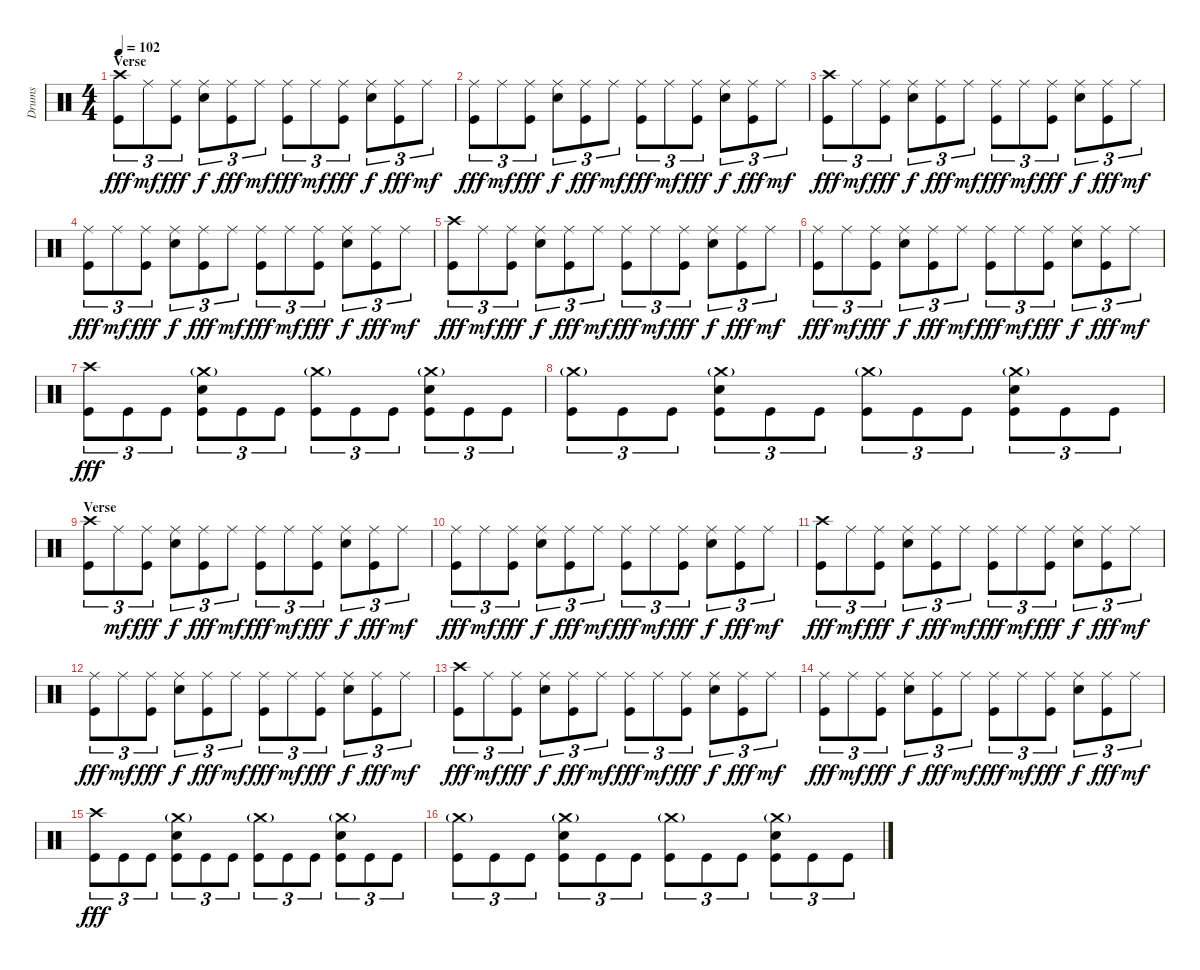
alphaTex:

\track ("Drums" "Drums") {instrument percussion}
\staff {score}
\articulation defaults
\ts (4 4)
\section ("" "Verse")
\tempo 102
\clef neutral
\ks c
("Crash high (hit)" "Kick (hit)").8{tu (3 2) dy fff} "Ride (middle)".8{tu (3 2) dy mf} ("Ride (middle)" "Kick (hit)").8{tu (3 2) dy fff} ("Ride (middle)" "Snare (hit) 2").8{tu (3 2) dy f} ("Ride (middle)" "Kick (hit)").8{tu (3 2) dy fff} "Ride (middle)".8{tu (3 2) dy mf} ("Ride (middle)" "Kick (hit)").8{tu (3 2) dy fff} "Ride (middle)".8{tu (3 2) dy mf} ("Ride (middle)" "Kick (hit)").8{tu (3 2) dy fff} ("Ride (middle)" "Snare (hit) 2").8{tu (3 2) dy f} ("Ride (middle)" "Kick (hit)").8{tu (3 2) dy fff} "Ride (middle)".8{tu (3 2) dy mf} |
("Ride (middle)" "Kick (hit)").8{tu (3 2) dy fff} "Ride (middle)".8{tu (3 2) dy mf} ("Ride (middle)" "Kick (hit)").8{tu (3 2) dy fff} ("Ride (middle)" "Snare (hit) 2").8{tu (3 2) dy f} ("Ride (middle)" "Kick (hit)").8{tu (3 2) dy fff} "Ride (middle)".8{tu (3 2) dy mf} ("Ride (middle)" "Kick (hit)").8{tu (3 2) dy fff} "Ride (middle)".8{tu (3 2) dy mf} ("Ride (middle)" "Kick (hit)").8{tu (3 2) dy fff} ("Ride (middle)" "Snare (hit) 2").8{tu (3 2) dy f} ("Ride (middle)" "Kick (hit)").8{tu (3 2) dy fff} "Ride (middle)".8{tu (3 2) dy mf} |
("Crash high (hit)" "Kick (hit)").8{tu (3 2) dy fff} "Ride (middle)".8{tu (3 2) dy mf} ("Ride (middle)" "Kick (hit)").8{tu (3 2) dy fff} ("Ride (middle)" "Snare (hit) 2").8{tu (3 2) dy f} ("Ride (middle)" "Kick (hit)").8{tu (3 2) dy fff} "Ride (middle)".8{tu (3 2) dy mf} ("Ride (middle)" "Kick (hit)").8{tu (3 2) dy fff} "Ride (middle)".8{tu (3 2) dy mf} ("Ride (middle)" "Kick (hit)").8{tu (3 2) dy fff} ("Ride (middle)" "Snare (hit) 2").8{tu (3 2) dy f} ("Ride (middle)" "Kick (hit)").8{tu (3 2) dy fff} "Ride (middle)".8{tu (3 2) dy mf} |
("Ride (middle)" "Kick (hit)").8{tu (3 2) dy fff} "Ride (middle)".8{tu (3 2) dy mf} ("Ride (middle)" "Kick (hit)").8{tu (3 2) dy fff} ("Ride (middle)" "Snare (hit) 2").8{tu (3 2) dy f} ("Ride (middle)" "Kick (hit)").8{tu (3 2) dy fff} "Ride (middle)".8{tu (3 2) dy mf} ("Ride (middle)" "Kick (hit)").8{tu (3 2) dy fff} "Ride (middle)".8{tu (3 2) dy mf} ("Ride (middle)" "Kick (hit)").8{tu (3 2) dy fff} ("Ride (middle)" "Snare (hit) 2").8{tu (3 2) dy f} ("Ride (middle)" "Kick (hit)").8{tu (3 2) dy fff} "Ride (middle)".8{tu (3 2) dy mf} |
("Crash high (hit)" "Kick (hit)").8{tu (3 2) dy fff} "Ride (middle)".8{tu (3 2) dy mf} ("Ride (middle)" "Kick (hit)").8{tu (3 2) dy fff} ("Ride (middle)" "Snare (hit) 2").8{tu (3 2) dy f} ("Ride (middle)" "Kick (hit)").8{tu (3 2) dy fff} "Ride (middle)".8{tu (3 2) dy mf} ("Ride (middle)" "Kick (hit)").8{tu (3 2) dy fff} "Ride (middle)".8{tu (3 2) dy mf} ("Ride (middle)" "Kick (hit)").8{tu (3 2) dy fff} ("Ride (middle)" "Snare (hit) 2").8{tu (3 2) dy f} ("Ride (middle)" "Kick (hit)").8{tu (3 2) dy fff} "Ride (middle)".8{tu (3 2) dy mf} |
("Ride (middle)" "Kick (hit)").8{tu (3 2) dy fff} "Ride (middle)".8{tu (3 2) dy mf} ("Ride (middle)" "Kick (hit)").8{tu (3 2) dy fff} ("Ride (middle)" "Snare (hit) 2").8{tu (3 2) dy f} ("Ride (middle)" "Kick (hit)").8{tu (3 2) dy fff} "Ride (middle)".8{tu (3 2) dy mf} ("Ride (middle)" "Kick (hit)").8{tu (3 2) dy fff} "Ride (middle)".8{tu (3 2) dy mf} ("Ride (middle)" "Kick (hit)").8{tu (3 2) dy fff} ("Ride (middle)" "Snare (hit) 2").8{tu (3 2) dy f} ("Ride (middle)" "Kick (hit)").8{tu (3 2) dy fff} "Ride (middle)".8{tu (3 2) dy mf} |
("Crash high (hit)" "Kick (hit)").8{tu (3 2) dy fff} "Kick (hit)".8{tu (3 2)} "Kick (hit)".8{tu (3 2)} ("Crash medium (hit)"{g} "Snare (hit) 2" "Kick (hit)").8{tu (3 2)} "Kick (hit)".8{tu (3 2)} "Kick (hit)".8{tu (3 2)} ("Crash medium (hit)"{g} "Kick (hit)").8{tu (3 2)} "Kick (hit)".8{tu (3 2)} "Kick (hit)".8{tu (3 2)} ("Crash medium (hit)"{g} "Snare (hit) 2" "Kick (hit)").8{tu (3 2)} "Kick (hit)".8{tu (3 2)} "Kick (hit)".8{tu (3 2)} |
("Crash medium (hit)"{g} "Kick (hit)").8{tu (3 2)} "Kick (hit)".8{tu (3 2)} "Kick (hit)".8{tu (3 2)} ("Crash medium (hit)"{g} "Snare (hit) 2" "Kick (hit)").8{tu (3 2)} "Kick (hit)".8{tu (3 2)} "Kick (hit)".8{tu (3 2)} ("Crash medium (hit)"{g} "Kick (hit)").8{tu (3 2)} "Kick (hit)".8{tu (3 2)} "Kick (hit)".8{tu (3 2)} ("Crash medium (hit)"{g} "Snare (hit) 2" "Kick (hit)").8{tu (3 2)} "Kick (hit)".8{tu (3 2)} "Kick (hit)".8{tu (3 2)} |
\section ("" "Verse")
("Crash high (hit)" "Kick (hit)").8{tu (3 2)} "Ride (middle)".8{tu (3 2) dy mf} ("Ride (middle)" "Kick (hit)").8{tu (3 2) dy fff} ("Ride (middle)" "Snare (hit) 2").8{tu (3 2) dy f} ("Ride (middle)" "Kick (hit)").8{tu (3 2) dy fff} "Ride (middle)".8{tu (3 2) dy mf} ("Ride (middle)" "Kick (hit)").8{tu (3 2) dy fff} "Ride (middle)".8{tu (3 2) dy mf} ("Ride (middle)" "Kick (hit)").8{tu (3 2) dy fff} ("Ride (middle)" "Snare (hit) 2").8{tu (3 2) dy f} ("Ride (middle)" "Kick (hit)").8{tu (3 2) dy fff} "Ride (middle)".8{tu (3 2) dy mf} |
("Ride (middle)" "Kick (hit)").8{tu (3 2) dy fff} "Ride (middle)".8{tu (3 2) dy mf} ("Ride (middle)" "Kick (hit)").8{tu (3 2) dy fff} ("Ride (middle)" "Snare (hit) 2").8{tu (3 2) dy f} ("Ride (middle)" "Kick (hit)").8{tu (3 2) dy fff} "Ride (middle)".8{tu (3 2) dy mf} ("Ride (middle)" "Kick (hit)").8{tu (3 2) dy fff} "Ride (middle)".8{tu (3 2) dy mf} ("Ride (middle)" "Kick (hit)").8{tu (3 2) dy fff} ("Ride (middle)" "Snare (hit) 2").8{tu (3 2) dy f} ("Ride (middle)" "Kick (hit)").8{tu (3 2) dy fff} "Ride (middle)".8{tu (3 2) dy mf} |
("Crash high (hit)" "Kick (hit)").8{tu (3 2) dy fff} "Ride (middle)".8{tu (3 2) dy mf} ("Ride (middle)" "Kick (hit)").8{tu (3 2) dy fff} ("Ride (middle)" "Snare (hit) 2").8{tu (3 2) dy f} ("Ride (middle)" "Kick (hit)").8{tu (3 2) dy fff} "Ride (middle)".8{tu (3 2) dy mf} ("Ride (middle)" "Kick (hit)").8{tu (3 2) dy fff} "Ride (middle)".8{tu (3 2) dy mf} ("Ride (middle)" "Kick (hit)").8{tu (3 2) dy fff} ("Ride (middle)" "Snare (hit) 2").8{tu (3 2) dy f} ("Ride (middle)" "Kick (hit)").8{tu (3 2) dy fff} "Ride (middle)".8{tu (3 2) dy mf} |
("Ride (middle)" "Kick (hit)").8{tu (3 2) dy fff} "Ride (middle)".8{tu (3 2) dy mf} ("Ride (middle)" "Kick (hit)").8{tu (3 2) dy fff} ("Ride (middle)" "Snare (hit) 2").8{tu (3 2) dy f} ("Ride (middle)" "Kick (hit)").8{tu (3 2) dy fff} "Ride (middle)".8{tu (3 2) dy mf} ("Ride (middle)" "Kick (hit)").8{tu (3 2) dy fff} "Ride (middle)".8{tu (3 2) dy mf} ("Ride (middle)" "Kick (hit)").8{tu (3 2) dy fff} ("Ride (middle)" "Snare (hit) 2").8{tu (3 2) dy f} ("Ride (middle)" "Kick (hit)").8{tu (3 2) dy fff} "Ride (middle)".8{tu (3 2) dy mf} |
("Crash high (hit)" "Kick (hit)").8{tu (3 2) dy fff} "Ride (middle)".8{tu (3 2) dy mf} ("Ride (middle)" "Kick (hit)").8{tu (3 2) dy fff} ("Ride (middle)" "Snare (hit) 2").8{tu (3 2) dy f} ("Ride (middle)" "Kick (hit)").8{tu (3 2) dy fff} "Ride (middle)".8{tu (3 2) dy mf} ("Ride (middle)" "Kick (hit)").8{tu (3 2) dy fff} "Ride (middle)".8{tu (3 2) dy mf} ("Ride (middle)" "Kick (hit)").8{tu (3 2) dy fff} ("Ride (middle)" "Snare (hit) 2").8{tu (3 2) dy f} ("Ride (middle)" "Kick (hit)").8{tu (3 2) dy fff} "Ride (middle)".8{tu (3 2) dy mf} |
("Ride (middle)" "Kick (hit)").8{tu (3 2) dy fff} "Ride (middle)".8{tu (3 2) dy mf} ("Ride (middle)" "Kick (hit)").8{tu (3 2) dy fff} ("Ride (middle)" "Snare (hit) 2").8{tu (3 2) dy f} ("Ride (middle)" "Kick (hit)").8{tu (3 2) dy fff} "Ride (middle)".8{tu (3 2) dy mf} ("Ride (middle)" "Kick (hit)").8{tu (3 2) dy fff} "Ride (middle)".8{tu (3 2) dy mf} ("Ride (middle)" "Kick (hit)").8{tu (3 2) dy fff} ("Ride (middle)" "Snare (hit) 2").8{tu (3 2) dy f} ("Ride (middle)" "Kick (hit)").8{tu (3 2) dy fff} "Ride (middle)".8{tu (3 2) dy mf} |
("Crash high (hit)" "Kick (hit)").8{tu (3 2) dy fff} "Kick (hit)".8{tu (3 2)} "Kick (hit)".8{tu (3 2)} ("Crash medium (hit)"{g} "Snare (hit) 2" "Kick (hit)").8{tu (3 2)} "Kick (hit)".8{tu (3 2)} "Kick (hit)".8{tu (3 2)} ("Crash medium (hit)"{g} "Kick (hit)").8{tu (3 2)} "Kick (hit)".8{tu (3 2)} "Kick (hit)".8{tu (3 2)} ("Crash medium (hit)"{g} "Snare (hit) 2" "Kick (hit)").8{tu (3 2)} "Kick (hit)".8{tu (3 2)} "Kick (hit)".8{tu (3 2)} |
("Crash medium (hit)"{g} "Kick (hit)").8{tu (3 2)} "Kick (hit)".8{tu (3 2)} "Kick (hit)".8{tu (3 2)} ("Crash medium (hit)"{g} "Snare (hit) 2" "Kick (hit)").8{tu (3 2)} "Kick (hit)".8{tu (3 2)} "Kick (hit)".8{tu (3 2)} ("Crash medium (hit)"{g} "Kick (hit)").8{tu (3 2)} "Kick (hit)".8{tu (3 2)} "Kick (hit)".8{tu (3 2)} ("Crash medium (hit)"{g} "Snare (hit) 2" "Kick (hit)").8{tu (3 2)} "Kick (hit)".8{tu (3 2)} "Kick (hit)".8{tu (3 2)}
